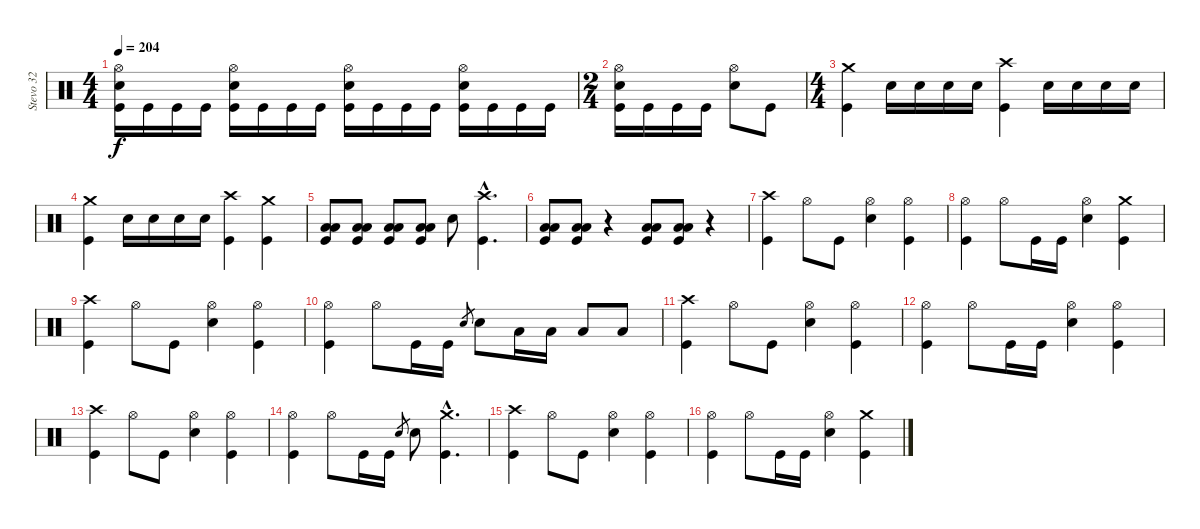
\track ("Stevo 32" "Stevo 32") {instrument percussion}
\staff {score}
\articulation defaults
\ts (4 4)
\tempo 204
\clef neutral
\ks c
("Hi-Hat (open)" "Electric Snare (hit)" "Kick (hit)").16{dy f} "Kick (hit)".16 "Kick (hit)".16 "Kick (hit)".16 ("Hi-Hat (open)" "Electric Snare (hit)" "Kick (hit)").16 "Kick (hit)".16 "Kick (hit)".16 "Kick (hit)".16 ("Hi-Hat (open)" "Electric Snare (hit)" "Kick (hit)").16 "Kick (hit)".16 "Kick (hit)".16 "Kick (hit)".16 ("Hi-Hat (open)" "Electric Snare (hit)" "Kick (hit)").16 "Kick (hit)".16 "Kick (hit)".16 "Kick (hit)".16 |
\ts (2 4)
("Hi-Hat (open)" "Electric Snare (hit)" "Kick (hit)").16 "Kick (hit)".16 "Kick (hit)".16 "Kick (hit)".16 ("Hi-Hat (open)" "Electric Snare (hit)").8 "Kick (hit)".8 |
\ts (4 4)
("Crash medium (hit)" "Kick (hit)").4 "Electric Snare (hit)".16 "Electric Snare (hit)".16 "Electric Snare (hit)".16 "Electric Snare (hit)".16 ("Crash high (hit)" "Kick (hit)").4 "Electric Snare (hit)".16 "Electric Snare (hit)".16 "Electric Snare (hit)".16 "Electric Snare (hit)".16 |
("Crash medium (hit)" "Kick (hit)").4 "Electric Snare (hit)".16 "Electric Snare (hit)".16 "Electric Snare (hit)".16 "Electric Snare (hit)".16 ("Crash high (hit)" "Kick (hit)").4 ("Crash medium (hit)" "Kick (hit)").4 |
("Low Tom (hit)" "Low Floor Tom (hit)" "Kick (hit)").8 ("Low Tom (hit)" "Low Floor Tom (hit)" "Kick (hit)").8 ("Low Tom (hit)" "Low Floor Tom (hit)" "Kick (hit)").8 ("Low Tom (hit)" "Low Floor Tom (hit)" "Kick (hit)").8 "Electric Snare (hit)".8 ("Crash high (hit)"{hac} "Kick (hit)"{hac}).4{d} |
("Low Tom (hit)" "Low Floor Tom (hit)" "Kick (hit)").8 ("Low Tom (hit)" "Low Floor Tom (hit)" "Kick (hit)").8 r.4 ("Low Tom (hit)" "Low Floor Tom (hit)" "Kick (hit)").8 ("Low Tom (hit)" "Low Floor Tom (hit)" "Kick (hit)").8 r.4 |
("Crash high (hit)" "Kick (hit)").4 "Hi-Hat (open)".8 "Kick (hit)".8 ("Hi-Hat (open)" "Electric Snare (hit)").4 ("Hi-Hat (open)" "Kick (hit)").4 |
("Hi-Hat (open)" "Kick (hit)").4 "Hi-Hat (open)".8 "Kick (hit)".16 "Kick (hit)".16 ("Hi-Hat (open)" "Electric Snare (hit)").4 ("Crash medium (hit)" "Kick (hit)").4 |
("Crash high (hit)" "Kick (hit)").4 "Hi-Hat (open)".8 "Kick (hit)".8 ("Hi-Hat (open)" "Electric Snare (hit)").4 ("Hi-Hat (open)" "Kick (hit)").4 |
("Hi-Hat (open)" "Kick (hit)").4 "Hi-Hat (open)".8 "Kick (hit)".16 "Kick (hit)".16 "Electric Snare (hit)".8{gr} "Electric Snare (hit)".8 "Low Tom (hit)".16 "Low Tom (hit)".16 "Low Tom (hit)".8 "Low Floor Tom (hit)".8 |
("Crash high (hit)" "Kick (hit)").4 "Hi-Hat (open)".8 "Kick (hit)".8 ("Hi-Hat (open)" "Electric Snare (hit)").4 ("Hi-Hat (open)" "Kick (hit)").4 |
("Hi-Hat (open)" "Kick (hit)").4 "Hi-Hat (open)".8 "Kick (hit)".16 "Kick (hit)".16 ("Hi-Hat (open)" "Electric Snare (hit)").4 ("Hi-Hat (open)" "Kick (hit)").4 |
("Crash high (hit)" "Kick (hit)").4 "Hi-Hat (open)".8 "Kick (hit)".8 ("Hi-Hat (open)" "Electric Snare (hit)").4 ("Hi-Hat (open)" "Kick (hit)").4 |
("Hi-Hat (open)" "Kick (hit)").4 "Hi-Hat (open)".8 "Kick (hit)".16 "Kick (hit)".16 "Electric Snare (hit)".8{gr} "Electric Snare (hit)".8 ("Crash medium (hit)"{hac} "Kick (hit)"{hac}).4{d} |
("Crash high (hit)" "Kick (hit)").4 "Hi-Hat (open)".8 "Kick (hit)".8 ("Hi-Hat (open)" "Electric Snare (hit)").4 ("Hi-Hat (open)" "Kick (hit)").4 |
("Hi-Hat (open)" "Kick (hit)").4 "Hi-Hat (open)".8 "Kick (hit)".16 "Kick (hit)".16 ("Hi-Hat (open)" "Electric Snare (hit)").4 ("Crash medium (hit)" "Kick (hit)").4
